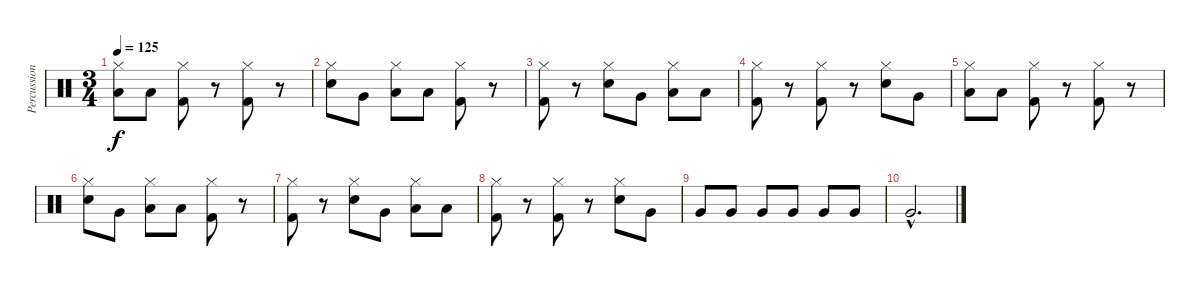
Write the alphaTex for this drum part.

\track ("Percussion" "Percussion") {instrument percussion}
\staff {score}
\articulation defaults
\ts (3 4)
\tempo 125
\clef neutral
\ks c
("Hi-Hat (closed)" "Low Floor Tom (hit)").8{dy f} "Low Floor Tom (hit)".8 ("Hi-Hat (closed)" "Kick (hit) 2").8 r.8 ("Hi-Hat (closed)" "Kick (hit) 2").8 r.8 |
("Hi-Hat (closed)" "Snare (hit) 2").8 "Very Low Tom (hit)".8 ("Hi-Hat (closed)" "Low Floor Tom (hit)").8 "Low Floor Tom (hit)".8 ("Hi-Hat (closed)" "Kick (hit) 2").8 r.8 |
("Hi-Hat (closed)" "Kick (hit) 2").8 r.8 ("Hi-Hat (closed)" "Snare (hit) 2").8 "Very Low Tom (hit)".8 ("Hi-Hat (closed)" "Low Floor Tom (hit)").8 "Low Floor Tom (hit)".8 |
("Hi-Hat (closed)" "Kick (hit) 2").8 r.8 ("Hi-Hat (closed)" "Kick (hit) 2").8 r.8 ("Hi-Hat (closed)" "Snare (hit) 2").8 "Very Low Tom (hit)".8 |
("Hi-Hat (closed)" "Low Floor Tom (hit)").8 "Low Floor Tom (hit)".8 ("Hi-Hat (closed)" "Kick (hit) 2").8 r.8 ("Hi-Hat (closed)" "Kick (hit) 2").8 r.8 |
("Hi-Hat (closed)" "Snare (hit) 2").8 "Very Low Tom (hit)".8 ("Hi-Hat (closed)" "Low Floor Tom (hit)").8 "Low Floor Tom (hit)".8 ("Hi-Hat (closed)" "Kick (hit) 2").8 r.8 |
("Hi-Hat (closed)" "Kick (hit) 2").8 r.8 ("Hi-Hat (closed)" "Snare (hit) 2").8 "Very Low Tom (hit)".8 ("Hi-Hat (closed)" "Low Floor Tom (hit)").8 "Low Floor Tom (hit)".8 |
("Hi-Hat (closed)" "Kick (hit) 2").8 r.8 ("Hi-Hat (closed)" "Kick (hit) 2").8 r.8 ("Hi-Hat (closed)" "Snare (hit) 2").8 "Very Low Tom (hit)".8 |
"Very Low Tom (hit)".8{volume 12} "Very Low Tom (hit)".8{volume 10} "Very Low Tom (hit)".8{volume 8} "Very Low Tom (hit)".8{volume 6} "Very Low Tom (hit)".8{volume 4} "Very Low Tom (hit)".8{volume 2} |
"Very Low Tom (hit)"{hac}.2{d volume 1}
